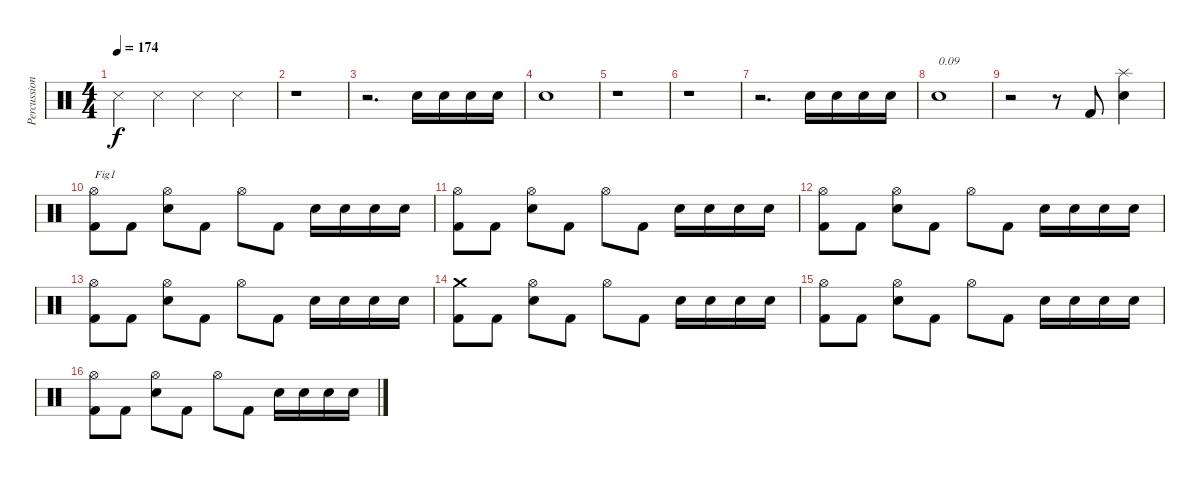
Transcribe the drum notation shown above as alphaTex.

\track ("Percussions" "Percussion") {instrument percussion}
\staff {score}
\articulation defaults
\ts (4 4)
\tempo 174
\clef neutral
\ks c "Metronome (hit)".4{dy f} "Metronome (hit)".4 "Metronome (hit)".4 "Metronome (hit)".4
|
r.1 |
r.2{d} "Electric Snare (hit)".16 "Electric Snare (hit)".16 "Electric Snare (hit)".16 "Electric Snare (hit)".16 |
"Electric Snare (hit)".1 |
r.1 |
r.1 |
r.2{d} "Electric Snare (hit)".16 "Electric Snare (hit)".16 "Electric Snare (hit)".16 "Electric Snare (hit)".16 |
"Electric Snare (hit)".1{txt "0.09"} |
r.2 r.8 "Kick (hit) 2".8 ("Electric Snare (hit)" "Splash (hit)").4 |
("Kick (hit) 2" "Hi-Hat (open)").8{txt "Fig1"} "Kick (hit) 2".8 ("Electric Snare (hit)" "Hi-Hat (open)").8 "Kick (hit) 2".8 "Hi-Hat (open)".8 "Kick (hit) 2".8 "Electric Snare (hit)".16 "Electric Snare (hit)".16 "Electric Snare (hit)".16 "Electric Snare (hit)".16 |
("Kick (hit) 2" "Hi-Hat (open)").8 "Kick (hit) 2".8 ("Electric Snare (hit)" "Hi-Hat (open)").8 "Kick (hit) 2".8 "Hi-Hat (open)".8 "Kick (hit) 2".8 "Electric Snare (hit)".16 "Electric Snare (hit)".16 "Electric Snare (hit)".16 "Electric Snare (hit)".16 |
("Kick (hit) 2" "Hi-Hat (open)").8 "Kick (hit) 2".8 ("Electric Snare (hit)" "Hi-Hat (open)").8 "Kick (hit) 2".8 "Hi-Hat (open)".8 "Kick (hit) 2".8 "Electric Snare (hit)".16 "Electric Snare (hit)".16 "Electric Snare (hit)".16 "Electric Snare (hit)".16 |
("Kick (hit) 2" "Hi-Hat (open)").8 "Kick (hit) 2".8 ("Electric Snare (hit)" "Hi-Hat (open)").8 "Kick (hit) 2".8 "Hi-Hat (open)".8 "Kick (hit) 2".8 "Electric Snare (hit)".16 "Electric Snare (hit)".16 "Electric Snare (hit)".16 "Electric Snare (hit)".16 |
("Kick (hit) 2" "Crash medium (hit)").8 "Kick (hit) 2".8 ("Electric Snare (hit)" "Hi-Hat (open)").8 "Kick (hit) 2".8 "Hi-Hat (open)".8 "Kick (hit) 2".8 "Electric Snare (hit)".16 "Electric Snare (hit)".16 "Electric Snare (hit)".16 "Electric Snare (hit)".16 |
("Kick (hit) 2" "Hi-Hat (open)").8 "Kick (hit) 2".8 ("Electric Snare (hit)" "Hi-Hat (open)").8 "Kick (hit) 2".8 "Hi-Hat (open)".8 "Kick (hit) 2".8 "Electric Snare (hit)".16 "Electric Snare (hit)".16 "Electric Snare (hit)".16 "Electric Snare (hit)".16 |
("Kick (hit) 2" "Hi-Hat (open)").8 "Kick (hit) 2".8 ("Electric Snare (hit)" "Hi-Hat (open)").8 "Kick (hit) 2".8 "Hi-Hat (open)".8 "Kick (hit) 2".8 "Electric Snare (hit)".16 "Electric Snare (hit)".16 "Electric Snare (hit)".16 "Electric Snare (hit)".16
